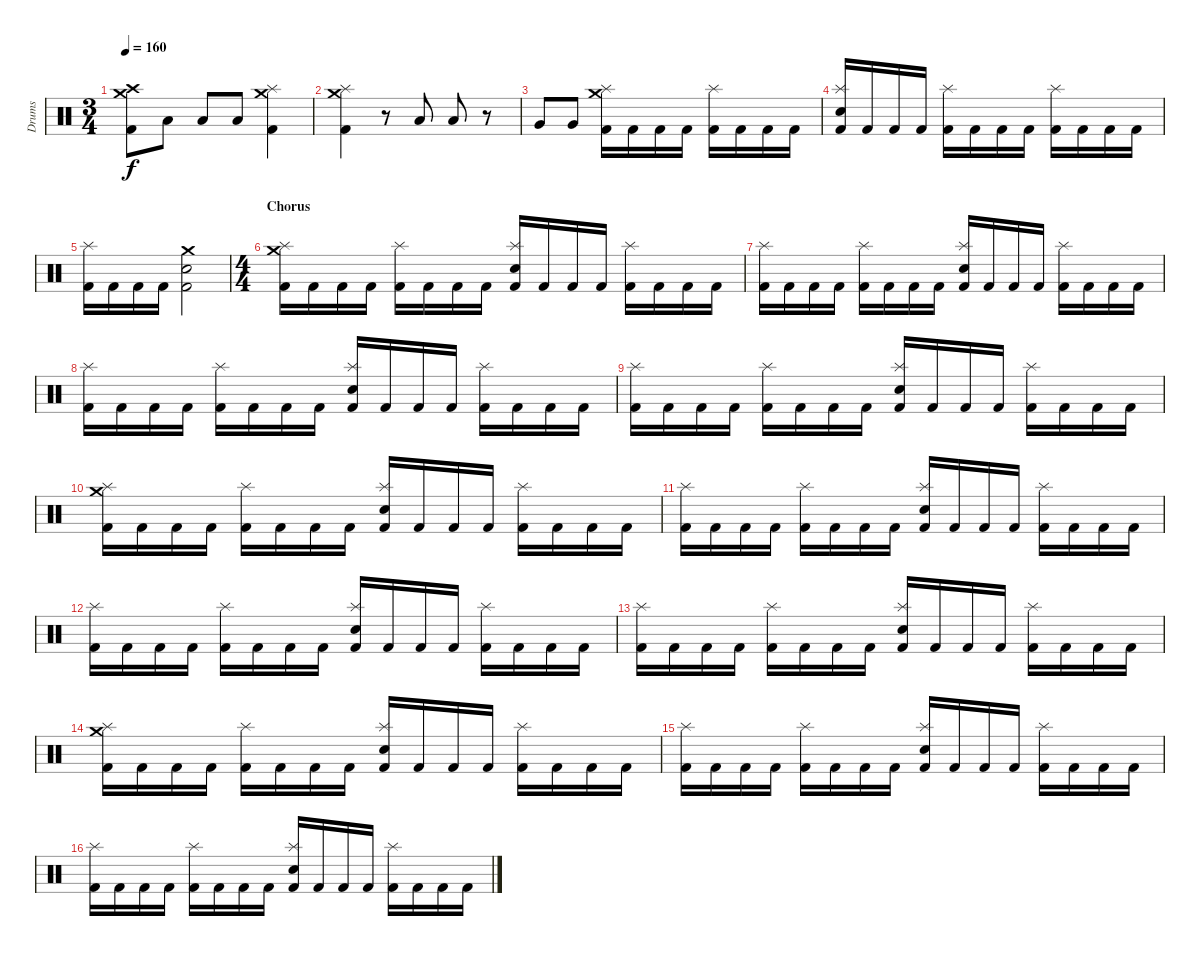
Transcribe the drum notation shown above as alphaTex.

\track ("Drums" "Drums") {instrument percussion}
\staff {score}
\articulation defaults
\ts (3 4)
\tempo 160
\clef neutral
\ks c
("Crash high (hit)" "Crash medium (hit)" "Kick (hit) 2").8{dy f} "Low Tom (hit)".8 "Low Tom (hit)".8 "Low Tom (hit)".8 ("Splash (hit)" "Crash medium (hit)" "Kick (hit) 2").4 |
("Splash (hit)" "Crash medium (hit)" "Kick (hit) 2").4 r.8 "Low Tom (hit)".8 "Low Tom (hit)".8 r.8 |
"Very Low Tom (hit)".8 "Very Low Tom (hit)".8 ("Splash (hit)" "Crash medium (hit)" "Kick (hit) 2").16 "Kick (hit) 2".16 "Kick (hit) 2".16 "Kick (hit) 2".16 ("Splash (hit)" "Kick (hit) 2").16 "Kick (hit) 2".16 "Kick (hit) 2".16 "Kick (hit) 2".16 |
("Splash (hit)" "Snare (hit) 2" "Kick (hit) 2").16 "Kick (hit) 2".16 "Kick (hit) 2".16 "Kick (hit) 2".16 ("Splash (hit)" "Kick (hit) 2").16 "Kick (hit) 2".16 "Kick (hit) 2".16 "Kick (hit) 2".16 ("Splash (hit)" "Kick (hit) 2").16 "Kick (hit) 2".16 "Kick (hit) 2".16 "Kick (hit) 2".16 |
("Splash (hit)" "Kick (hit) 2").16 "Kick (hit) 2".16 "Kick (hit) 2".16 "Kick (hit) 2".16 ("Crash medium (hit)" "Snare (hit) 2" "Kick (hit) 2").2 |
\ts (4 4)
\section ("" "Chorus")
("Splash (hit)" "Crash medium (hit)" "Kick (hit) 2").16 "Kick (hit) 2".16 "Kick (hit) 2".16 "Kick (hit) 2".16 ("Splash (hit)" "Kick (hit) 2").16 "Kick (hit) 2".16 "Kick (hit) 2".16 "Kick (hit) 2".16 ("Splash (hit)" "Snare (hit) 2" "Kick (hit) 2").16 "Kick (hit) 2".16 "Kick (hit) 2".16 "Kick (hit) 2".16 ("Splash (hit)" "Kick (hit) 2").16 "Kick (hit) 2".16 "Kick (hit) 2".16 "Kick (hit) 2".16 |
("Splash (hit)" "Kick (hit) 2").16 "Kick (hit) 2".16 "Kick (hit) 2".16 "Kick (hit) 2".16 ("Splash (hit)" "Kick (hit) 2").16 "Kick (hit) 2".16 "Kick (hit) 2".16 "Kick (hit) 2".16 ("Splash (hit)" "Snare (hit) 2" "Kick (hit) 2").16 "Kick (hit) 2".16 "Kick (hit) 2".16 "Kick (hit) 2".16 ("Splash (hit)" "Kick (hit) 2").16 "Kick (hit) 2".16 "Kick (hit) 2".16 "Kick (hit) 2".16 |
("Splash (hit)" "Kick (hit) 2").16 "Kick (hit) 2".16 "Kick (hit) 2".16 "Kick (hit) 2".16 ("Splash (hit)" "Kick (hit) 2").16 "Kick (hit) 2".16 "Kick (hit) 2".16 "Kick (hit) 2".16 ("Splash (hit)" "Snare (hit) 2" "Kick (hit) 2").16 "Kick (hit) 2".16 "Kick (hit) 2".16 "Kick (hit) 2".16 ("Splash (hit)" "Kick (hit) 2").16 "Kick (hit) 2".16 "Kick (hit) 2".16 "Kick (hit) 2".16 |
("Splash (hit)" "Kick (hit) 2").16 "Kick (hit) 2".16 "Kick (hit) 2".16 "Kick (hit) 2".16 ("Splash (hit)" "Kick (hit) 2").16 "Kick (hit) 2".16 "Kick (hit) 2".16 "Kick (hit) 2".16 ("Splash (hit)" "Snare (hit) 2" "Kick (hit) 2").16 "Kick (hit) 2".16 "Kick (hit) 2".16 "Kick (hit) 2".16 ("Splash (hit)" "Kick (hit) 2").16 "Kick (hit) 2".16 "Kick (hit) 2".16 "Kick (hit) 2".16 |
("Splash (hit)" "Crash medium (hit)" "Kick (hit) 2").16 "Kick (hit) 2".16 "Kick (hit) 2".16 "Kick (hit) 2".16 ("Splash (hit)" "Kick (hit) 2").16 "Kick (hit) 2".16 "Kick (hit) 2".16 "Kick (hit) 2".16 ("Splash (hit)" "Snare (hit) 2" "Kick (hit) 2").16 "Kick (hit) 2".16 "Kick (hit) 2".16 "Kick (hit) 2".16 ("Splash (hit)" "Kick (hit) 2").16 "Kick (hit) 2".16 "Kick (hit) 2".16 "Kick (hit) 2".16 |
("Splash (hit)" "Kick (hit) 2").16 "Kick (hit) 2".16 "Kick (hit) 2".16 "Kick (hit) 2".16 ("Splash (hit)" "Kick (hit) 2").16 "Kick (hit) 2".16 "Kick (hit) 2".16 "Kick (hit) 2".16 ("Splash (hit)" "Snare (hit) 2" "Kick (hit) 2").16 "Kick (hit) 2".16 "Kick (hit) 2".16 "Kick (hit) 2".16 ("Splash (hit)" "Kick (hit) 2").16 "Kick (hit) 2".16 "Kick (hit) 2".16 "Kick (hit) 2".16 |
("Splash (hit)" "Kick (hit) 2").16 "Kick (hit) 2".16 "Kick (hit) 2".16 "Kick (hit) 2".16 ("Splash (hit)" "Kick (hit) 2").16 "Kick (hit) 2".16 "Kick (hit) 2".16 "Kick (hit) 2".16 ("Splash (hit)" "Snare (hit) 2" "Kick (hit) 2").16 "Kick (hit) 2".16 "Kick (hit) 2".16 "Kick (hit) 2".16 ("Splash (hit)" "Kick (hit) 2").16 "Kick (hit) 2".16 "Kick (hit) 2".16 "Kick (hit) 2".16 |
("Splash (hit)" "Kick (hit) 2").16 "Kick (hit) 2".16 "Kick (hit) 2".16 "Kick (hit) 2".16 ("Splash (hit)" "Kick (hit) 2").16 "Kick (hit) 2".16 "Kick (hit) 2".16 "Kick (hit) 2".16 ("Splash (hit)" "Snare (hit) 2" "Kick (hit) 2").16 "Kick (hit) 2".16 "Kick (hit) 2".16 "Kick (hit) 2".16 ("Splash (hit)" "Kick (hit) 2").16 "Kick (hit) 2".16 "Kick (hit) 2".16 "Kick (hit) 2".16 |
("Splash (hit)" "Crash medium (hit)" "Kick (hit) 2").16 "Kick (hit) 2".16 "Kick (hit) 2".16 "Kick (hit) 2".16 ("Splash (hit)" "Kick (hit) 2").16 "Kick (hit) 2".16 "Kick (hit) 2".16 "Kick (hit) 2".16 ("Splash (hit)" "Snare (hit) 2" "Kick (hit) 2").16 "Kick (hit) 2".16 "Kick (hit) 2".16 "Kick (hit) 2".16 ("Splash (hit)" "Kick (hit) 2").16 "Kick (hit) 2".16 "Kick (hit) 2".16 "Kick (hit) 2".16 |
("Splash (hit)" "Kick (hit) 2").16 "Kick (hit) 2".16 "Kick (hit) 2".16 "Kick (hit) 2".16 ("Splash (hit)" "Kick (hit) 2").16 "Kick (hit) 2".16 "Kick (hit) 2".16 "Kick (hit) 2".16 ("Splash (hit)" "Snare (hit) 2" "Kick (hit) 2").16 "Kick (hit) 2".16 "Kick (hit) 2".16 "Kick (hit) 2".16 ("Splash (hit)" "Kick (hit) 2").16 "Kick (hit) 2".16 "Kick (hit) 2".16 "Kick (hit) 2".16 |
("Splash (hit)" "Kick (hit) 2").16 "Kick (hit) 2".16 "Kick (hit) 2".16 "Kick (hit) 2".16 ("Splash (hit)" "Kick (hit) 2").16 "Kick (hit) 2".16 "Kick (hit) 2".16 "Kick (hit) 2".16 ("Splash (hit)" "Snare (hit) 2" "Kick (hit) 2").16 "Kick (hit) 2".16 "Kick (hit) 2".16 "Kick (hit) 2".16 ("Splash (hit)" "Kick (hit) 2").16 "Kick (hit) 2".16 "Kick (hit) 2".16 "Kick (hit) 2".16
